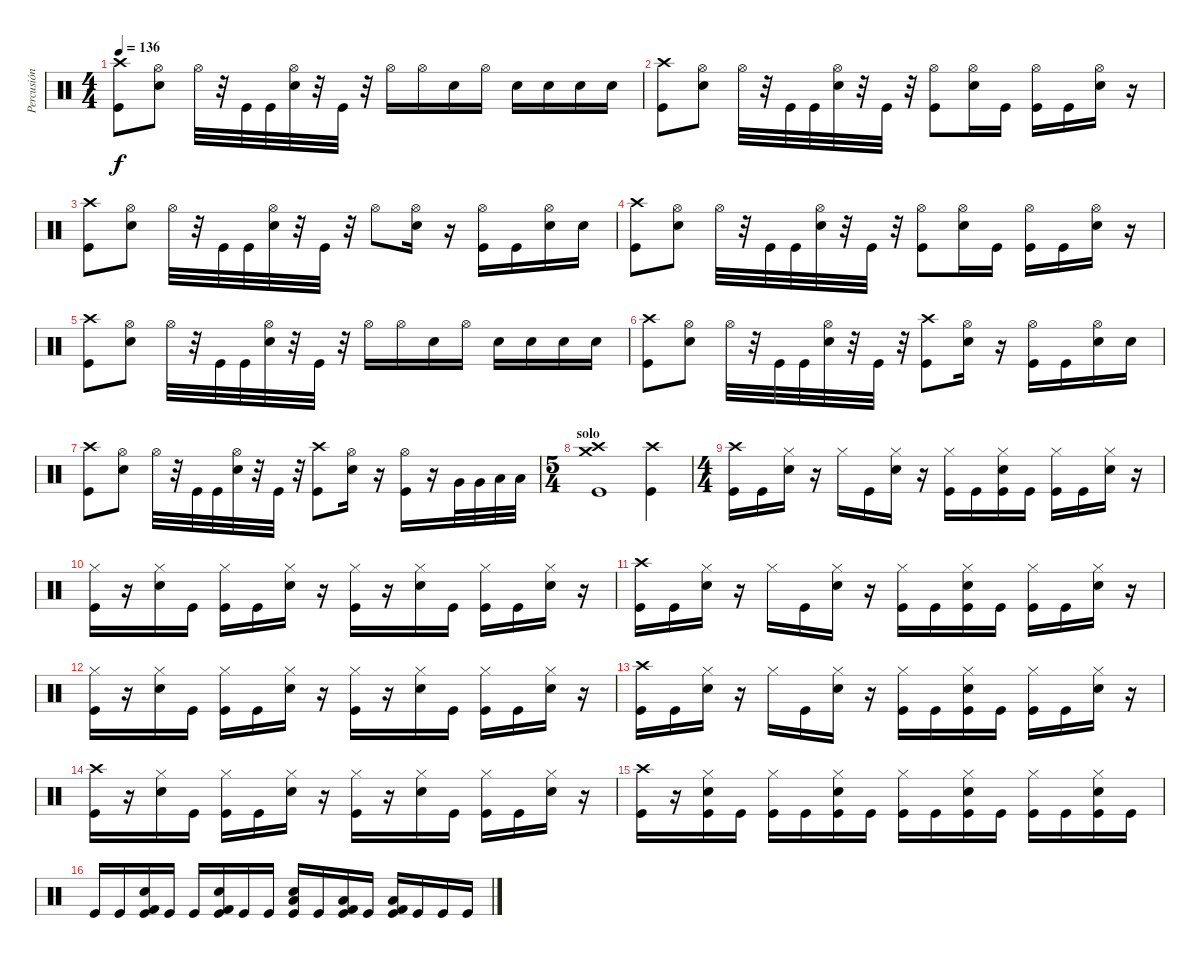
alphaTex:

\track ("Percusión" "Percusión") {instrument percussion}
\staff {score}
\articulation defaults
\ts (4 4)
\tempo 136
\clef neutral
\ks c
("Crash high (hit)" "Kick (hit)").8{dy f} ("Hi-Hat (open)" "Snare (hit) 2").8 "Hi-Hat (open)".32 r.32 "Kick (hit)".32 "Kick (hit)".32 ("Hi-Hat (open)" "Snare (hit) 2").32 r.32 "Kick (hit)".32 r.32 "Hi-Hat (open)".16 "Hi-Hat (open)".16 "Snare (hit) 2".16 "Hi-Hat (open)".16 "Snare (hit) 2".16 "Snare (hit) 2".16 "Snare (hit) 2".16 "Snare (hit) 2".16 |
("Crash high (hit)" "Kick (hit)").8 ("Hi-Hat (open)" "Snare (hit) 2").8 "Hi-Hat (open)".32 r.32 "Kick (hit)".32 "Kick (hit)".32 ("Hi-Hat (open)" "Snare (hit) 2").32 r.32 "Kick (hit)".32 r.32 ("Hi-Hat (open)" "Kick (hit)").8 ("Hi-Hat (open)" "Snare (hit) 2").16 "Kick (hit)".16 ("Hi-Hat (open)" "Kick (hit)").16 "Kick (hit)".16 ("Hi-Hat (open)" "Snare (hit) 2").16 r.16 |
("Crash high (hit)" "Kick (hit)").8 ("Hi-Hat (open)" "Snare (hit) 2").8 "Hi-Hat (open)".32 r.32 "Kick (hit)".32 "Kick (hit)".32 ("Hi-Hat (open)" "Snare (hit) 2").32 r.32 "Kick (hit)".32 r.32 "Hi-Hat (open)".8 ("Hi-Hat (open)" "Snare (hit) 2").16 r.16 ("Hi-Hat (open)" "Kick (hit)").16 "Kick (hit)".16 ("Hi-Hat (open)" "Snare (hit) 2").16 "Snare (hit) 2".16 |
("Crash high (hit)" "Kick (hit)").8 ("Hi-Hat (open)" "Snare (hit) 2").8 "Hi-Hat (open)".32 r.32 "Kick (hit)".32 "Kick (hit)".32 ("Hi-Hat (open)" "Snare (hit) 2").32 r.32 "Kick (hit)".32 r.32 ("Hi-Hat (open)" "Kick (hit)").8 ("Hi-Hat (open)" "Snare (hit) 2").16 "Kick (hit)".16 ("Hi-Hat (open)" "Kick (hit)").16 "Kick (hit)".16 ("Hi-Hat (open)" "Snare (hit) 2").16 r.16 |
("Crash high (hit)" "Kick (hit)").8 ("Hi-Hat (open)" "Snare (hit) 2").8 "Hi-Hat (open)".32 r.32 "Kick (hit)".32 "Kick (hit)".32 ("Hi-Hat (open)" "Snare (hit) 2").32 r.32 "Kick (hit)".32 r.32 "Hi-Hat (open)".16 "Hi-Hat (open)".16 "Snare (hit) 2".16 "Hi-Hat (open)".16 "Snare (hit) 2".16 "Snare (hit) 2".16 "Snare (hit) 2".16 "Snare (hit) 2".16 |
("Crash high (hit)" "Kick (hit)").8 ("Hi-Hat (open)" "Snare (hit) 2").8 "Hi-Hat (open)".32 r.32 "Kick (hit)".32 "Kick (hit)".32 ("Hi-Hat (open)" "Snare (hit) 2").32 r.32 "Kick (hit)".32 r.32 ("Crash high (hit)" "Kick (hit)").8 ("Hi-Hat (open)" "Snare (hit) 2").16 r.16 ("Hi-Hat (open)" "Kick (hit)").16 "Kick (hit)".16 ("Hi-Hat (open)" "Snare (hit) 2").16 "Snare (hit) 2".16 |
("Crash high (hit)" "Kick (hit)").8 ("Hi-Hat (open)" "Snare (hit) 2").8 "Hi-Hat (open)".32 r.32 "Kick (hit)".32 "Kick (hit)".32 ("Hi-Hat (open)" "Snare (hit) 2").32 r.32 "Kick (hit)".32 r.32 ("Crash high (hit)" "Kick (hit)").8 ("Hi-Hat (open)" "Snare (hit) 2").16 r.16 ("Hi-Hat (open)" "Kick (hit)").16 r.16 "Very Low Tom (hit)".32 "Very Low Tom (hit)".32 "Low Tom (hit)".32 "Low Tom (hit)".32 |
\ts (5 4)
\section ("" "solo")
("Crash high (hit)" "Crash medium (hit)" "Kick (hit)").1 ("Crash high (hit)" "Kick (hit)").4 |
\ts (4 4)
("Crash high (hit)" "Kick (hit)").16 "Kick (hit)".16 ("Hi-Hat (closed)" "Snare (hit) 2").16 r.16 "Hi-Hat (closed)".16 "Kick (hit)".16 ("Hi-Hat (closed)" "Snare (hit) 2").16 r.16 ("Hi-Hat (closed)" "Kick (hit)").16 "Kick (hit)".16 ("Hi-Hat (closed)" "Snare (hit) 2" "Kick (hit)").16 "Kick (hit)".16 ("Hi-Hat (closed)" "Kick (hit)").16 "Kick (hit)".16 ("Hi-Hat (closed)" "Snare (hit) 2").16 r.16 |
("Hi-Hat (closed)" "Kick (hit)").16 r.16 ("Hi-Hat (closed)" "Snare (hit) 2").16 "Kick (hit)".16 ("Hi-Hat (closed)" "Kick (hit)").16 "Kick (hit)".16 ("Hi-Hat (closed)" "Snare (hit) 2").16 r.16 ("Hi-Hat (closed)" "Kick (hit)").16 r.16 ("Hi-Hat (closed)" "Snare (hit) 2").16 "Kick (hit)".16 ("Hi-Hat (closed)" "Kick (hit)").16 "Kick (hit)".16 ("Hi-Hat (closed)" "Snare (hit) 2").16 r.16 |
("Crash high (hit)" "Kick (hit)").16 "Kick (hit)".16 ("Hi-Hat (closed)" "Snare (hit) 2").16 r.16 "Hi-Hat (closed)".16 "Kick (hit)".16 ("Hi-Hat (closed)" "Snare (hit) 2").16 r.16 ("Hi-Hat (closed)" "Kick (hit)").16 "Kick (hit)".16 ("Hi-Hat (closed)" "Snare (hit) 2" "Kick (hit)").16 "Kick (hit)".16 ("Hi-Hat (closed)" "Kick (hit)").16 "Kick (hit)".16 ("Hi-Hat (closed)" "Snare (hit) 2").16 r.16 |
("Hi-Hat (closed)" "Kick (hit)").16 r.16 ("Hi-Hat (closed)" "Snare (hit) 2").16 "Kick (hit)".16 ("Hi-Hat (closed)" "Kick (hit)").16 "Kick (hit)".16 ("Hi-Hat (closed)" "Snare (hit) 2").16 r.16 ("Hi-Hat (closed)" "Kick (hit)").16 r.16 ("Hi-Hat (closed)" "Snare (hit) 2").16 "Kick (hit)".16 ("Hi-Hat (closed)" "Kick (hit)").16 "Kick (hit)".16 ("Hi-Hat (closed)" "Snare (hit) 2").16 r.16 |
("Crash high (hit)" "Kick (hit)").16 "Kick (hit)".16 ("Hi-Hat (closed)" "Snare (hit) 2").16 r.16 "Hi-Hat (closed)".16 "Kick (hit)".16 ("Hi-Hat (closed)" "Snare (hit) 2").16 r.16 ("Hi-Hat (closed)" "Kick (hit)").16 "Kick (hit)".16 ("Hi-Hat (closed)" "Snare (hit) 2" "Kick (hit)").16 "Kick (hit)".16 ("Hi-Hat (closed)" "Kick (hit)").16 "Kick (hit)".16 ("Hi-Hat (closed)" "Snare (hit) 2").16 r.16 |
("Crash high (hit)" "Kick (hit)").16 r.16 ("Hi-Hat (closed)" "Snare (hit) 2").16 "Kick (hit)".16 ("Hi-Hat (closed)" "Kick (hit)").16 "Kick (hit)".16 ("Hi-Hat (closed)" "Snare (hit) 2").16 r.16 ("Hi-Hat (closed)" "Kick (hit)").16 r.16 ("Hi-Hat (closed)" "Snare (hit) 2").16 "Kick (hit)".16 ("Hi-Hat (closed)" "Kick (hit)").16 "Kick (hit)".16 ("Hi-Hat (closed)" "Snare (hit) 2").16 r.16 |
("Crash high (hit)" "Kick (hit)").16 r.16 ("Hi-Hat (closed)" "Snare (hit) 2" "Kick (hit)").16 "Kick (hit)".16 ("Hi-Hat (closed)" "Kick (hit)").16 "Kick (hit)".16 ("Hi-Hat (closed)" "Snare (hit) 2" "Kick (hit)").16 "Kick (hit)".16 ("Hi-Hat (closed)" "Kick (hit)").16 "Kick (hit)".16 ("Hi-Hat (closed)" "Snare (hit) 2" "Kick (hit)").16 "Kick (hit)".16 ("Hi-Hat (closed)" "Kick (hit)").16 "Kick (hit)".16 ("Hi-Hat (closed)" "Snare (hit) 2" "Kick (hit)").16 "Kick (hit)".16 |
"Kick (hit)".16 "Kick (hit)".16 ("Kick (hit) 2" "Snare (hit) 2" "Kick (hit)").16 "Kick (hit)".16 "Kick (hit)".16 ("Kick (hit) 2" "Snare (hit) 2" "Kick (hit)").16 "Kick (hit)".16 "Kick (hit)".16 ("Snare (hit) 2" "Low Tom (hit)" "Kick (hit)").16 "Kick (hit)".16 ("Kick (hit) 2" "Low Tom (hit)" "Kick (hit)").16 "Kick (hit)".16 ("Kick (hit) 2" "Low Tom (hit)" "Kick (hit)").16 "Kick (hit)".16 "Kick (hit)".16 "Kick (hit)".16
